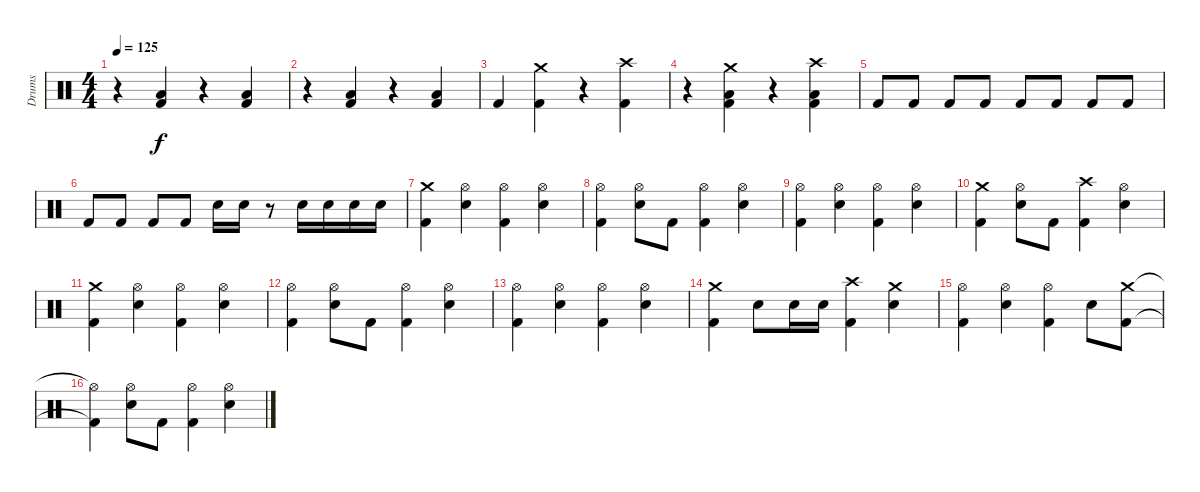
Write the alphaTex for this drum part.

\track ("Drums" "Drums") {instrument percussion}
\staff {score}
\articulation defaults
\ts (4 4)
\tempo 125
\clef neutral
\ks c
r.4{dy f} ("Low Tom (hit)" "Kick (hit) 2").4 r.4 ("Low Tom (hit)" "Kick (hit) 2").4 |
r.4 ("Low Tom (hit)" "Kick (hit) 2").4 r.4 ("Low Tom (hit)" "Kick (hit) 2").4 |
"Kick (hit) 2".4 ("Crash medium (hit)" "Kick (hit) 2").4 r.4 ("Crash high (hit)" "Kick (hit) 2").4 |
r.4 ("Crash medium (hit)" "Low Tom (hit)" "Kick (hit) 2").4 r.4 ("Crash high (hit)" "Low Tom (hit)" "Kick (hit) 2").4 |
"Kick (hit) 2".8 "Kick (hit) 2".8 "Kick (hit) 2".8 "Kick (hit) 2".8 "Kick (hit) 2".8 "Kick (hit) 2".8 "Kick (hit) 2".8 "Kick (hit) 2".8 |
"Kick (hit) 2".8 "Kick (hit) 2".8 "Kick (hit) 2".8 "Kick (hit) 2".8 "Electric Snare (hit)".16 "Electric Snare (hit)".16 r.8 "Electric Snare (hit)".16 "Electric Snare (hit)".16 "Electric Snare (hit)".16 "Electric Snare (hit)".16 |
("Crash medium (hit)" "Kick (hit) 2").4 ("Hi-Hat (open)" "Electric Snare (hit)").4 ("Hi-Hat (open)" "Kick (hit) 2").4 ("Hi-Hat (open)" "Electric Snare (hit)").4 |
("Hi-Hat (open)" "Kick (hit) 2").4 ("Hi-Hat (open)" "Electric Snare (hit)").8 "Kick (hit) 2".8 ("Hi-Hat (open)" "Kick (hit) 2").4 ("Hi-Hat (open)" "Electric Snare (hit)").4 |
("Hi-Hat (open)" "Kick (hit) 2").4 ("Hi-Hat (open)" "Electric Snare (hit)").4 ("Hi-Hat (open)" "Kick (hit) 2").4 ("Hi-Hat (open)" "Electric Snare (hit)").4 |
("Crash medium (hit)" "Kick (hit) 2").4 ("Hi-Hat (open)" "Electric Snare (hit)").8 "Kick (hit) 2".8 ("Crash high (hit)" "Kick (hit) 2").4 ("Hi-Hat (open)" "Electric Snare (hit)").4 |
("Crash medium (hit)" "Kick (hit) 2").4 ("Hi-Hat (open)" "Electric Snare (hit)").4 ("Hi-Hat (open)" "Kick (hit) 2").4 ("Hi-Hat (open)" "Electric Snare (hit)").4 |
("Hi-Hat (open)" "Kick (hit) 2").4 ("Hi-Hat (open)" "Electric Snare (hit)").8 "Kick (hit) 2".8 ("Hi-Hat (open)" "Kick (hit) 2").4 ("Hi-Hat (open)" "Electric Snare (hit)").4 |
("Hi-Hat (open)" "Kick (hit) 2").4 ("Hi-Hat (open)" "Electric Snare (hit)").4 ("Hi-Hat (open)" "Kick (hit) 2").4 ("Hi-Hat (open)" "Electric Snare (hit)").4 |
("Crash medium (hit)" "Kick (hit) 2").4 "Electric Snare (hit)".8 "Electric Snare (hit)".16 "Electric Snare (hit)".16 ("Crash high (hit)" "Kick (hit) 2").4 ("Crash medium (hit)" "Electric Snare (hit)").4 |
("Hi-Hat (open)" "Kick (hit) 2").4 ("Hi-Hat (open)" "Snare (hit) 2").4 ("Hi-Hat (open)" "Kick (hit) 2").4 "Electric Snare (hit)".8 ("Crash medium (hit)" "Kick (hit) 2").8 |
("Hi-Hat (open)"{t} "Kick (hit) 2"{t}).4 ("Hi-Hat (open)" "Electric Snare (hit)").8 "Kick (hit) 2".8 ("Hi-Hat (open)" "Kick (hit) 2").4 ("Hi-Hat (open)" "Electric Snare (hit)").4
